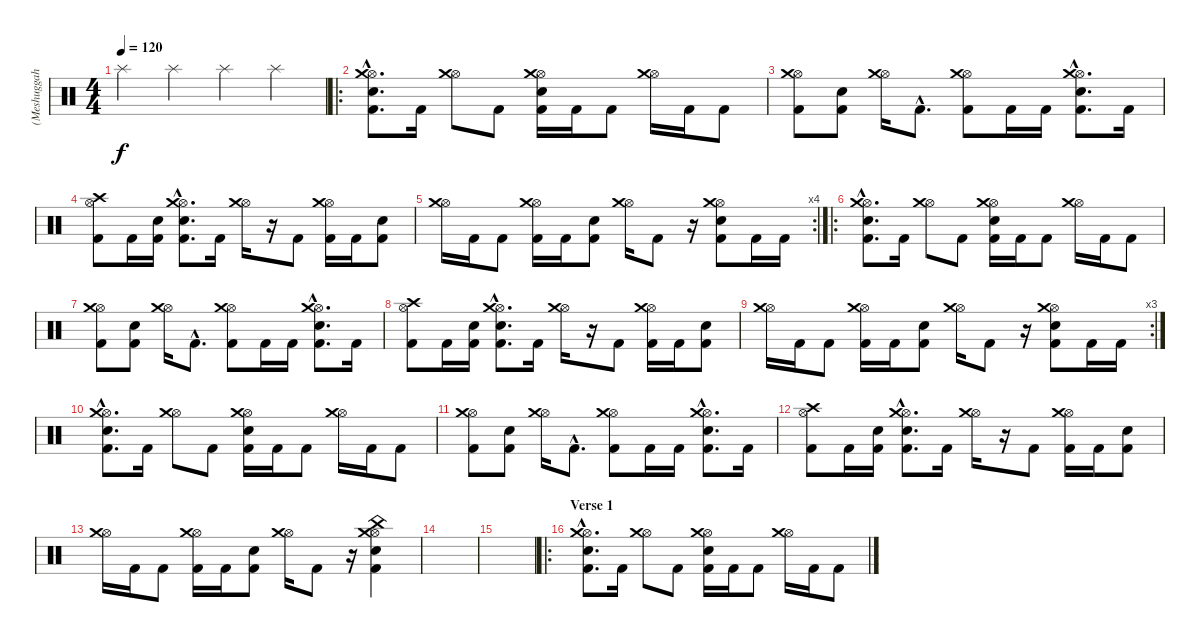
\track ("(Meshuggah) Drum programming" "(Meshuggah") {instrument percussion}
\staff {score}
\articulation defaults
\ts (4 4)
\tempo 120
\clef neutral
\ks c "Splash (hit)".4{dy f} "Splash (hit)".4 "Splash (hit)".4 "Splash (hit)".4
|
\ro
("Hi-Hat (open)"{hac} "Crash medium (hit)"{hac} "Electric Snare (hit)"{hac} "Kick (hit) 2"{hac}).8{d} "Kick (hit) 2".16 ("Hi-Hat (open)" "Crash medium (hit)").8 "Kick (hit) 2".8 ("Hi-Hat (open)" "Crash medium (hit)" "Electric Snare (hit)" "Kick (hit) 2").16 "Kick (hit) 2".16 "Kick (hit) 2".8 ("Hi-Hat (open)" "Crash medium (hit)").16 "Kick (hit) 2".16 "Kick (hit) 2".8 |
("Hi-Hat (open)" "Crash medium (hit)" "Kick (hit) 2").8 ("Electric Snare (hit)" "Kick (hit) 2").8 ("Hi-Hat (open)" "Crash medium (hit)").16 "Kick (hit) 2"{hac}.8{d} ("Hi-Hat (open)" "Crash medium (hit)" "Kick (hit) 2").8 "Kick (hit) 2".16 "Kick (hit) 2".16 ("Hi-Hat (open)"{hac} "Crash medium (hit)"{hac} "Electric Snare (hit)"{hac} "Kick (hit) 2"{hac}).8{d} "Kick (hit) 2".16 |
("Hi-Hat (open)" "Crash high (hit)" "Kick (hit) 2").8 "Kick (hit) 2".16 ("Electric Snare (hit)" "Kick (hit) 2").16 ("Hi-Hat (open)"{hac} "Crash medium (hit)"{hac} "Electric Snare (hit)"{hac} "Kick (hit) 2"{hac}).8{d} "Kick (hit) 2".16 ("Hi-Hat (open)" "Crash medium (hit)").16 r.16 "Kick (hit) 2".8 ("Hi-Hat (open)" "Crash medium (hit)" "Kick (hit) 2").16 "Kick (hit) 2".16 ("Electric Snare (hit)" "Kick (hit) 2").8 |
\rc 4
("Hi-Hat (open)" "Crash medium (hit)").16 "Kick (hit) 2".16 "Kick (hit) 2".8 ("Hi-Hat (open)" "Crash medium (hit)" "Kick (hit) 2").16 "Kick (hit) 2".16 ("Electric Snare (hit)" "Kick (hit) 2").8 ("Hi-Hat (open)" "Crash medium (hit)").16 "Kick (hit) 2".8 r.16 ("Hi-Hat (open)" "Crash medium (hit)" "Electric Snare (hit)" "Kick (hit) 2").8 "Kick (hit) 2".16 "Kick (hit) 2".16 |
\ro
("Hi-Hat (open)"{hac} "Crash medium (hit)"{hac} "Electric Snare (hit)"{hac} "Kick (hit) 2"{hac}).8{d} "Kick (hit) 2".16 ("Hi-Hat (open)" "Crash medium (hit)").8 "Kick (hit) 2".8 ("Hi-Hat (open)" "Crash medium (hit)" "Electric Snare (hit)" "Kick (hit) 2").16 "Kick (hit) 2".16 "Kick (hit) 2".8 ("Hi-Hat (open)" "Crash medium (hit)").16 "Kick (hit) 2".16 "Kick (hit) 2".8 |
("Hi-Hat (open)" "Crash medium (hit)" "Kick (hit) 2").8 ("Electric Snare (hit)" "Kick (hit) 2").8 ("Hi-Hat (open)" "Crash medium (hit)").16 "Kick (hit) 2"{hac}.8{d} ("Hi-Hat (open)" "Crash medium (hit)" "Kick (hit) 2").8 "Kick (hit) 2".16 "Kick (hit) 2".16 ("Hi-Hat (open)"{hac} "Crash medium (hit)"{hac} "Electric Snare (hit)"{hac} "Kick (hit) 2"{hac}).8{d} "Kick (hit) 2".16 |
("Hi-Hat (open)" "Crash high (hit)" "Kick (hit) 2").8 "Kick (hit) 2".16 ("Electric Snare (hit)" "Kick (hit) 2").16 ("Hi-Hat (open)"{hac} "Crash medium (hit)"{hac} "Electric Snare (hit)"{hac} "Kick (hit) 2"{hac}).8{d} "Kick (hit) 2".16 ("Hi-Hat (open)" "Crash medium (hit)").16 r.16 "Kick (hit) 2".8 ("Hi-Hat (open)" "Crash medium (hit)" "Kick (hit) 2").16 "Kick (hit) 2".16 ("Electric Snare (hit)" "Kick (hit) 2").8 |
\rc 3
("Hi-Hat (open)" "Crash medium (hit)").16 "Kick (hit) 2".16 "Kick (hit) 2".8 ("Hi-Hat (open)" "Crash medium (hit)" "Kick (hit) 2").16 "Kick (hit) 2".16 ("Electric Snare (hit)" "Kick (hit) 2").8 ("Hi-Hat (open)" "Crash medium (hit)").16 "Kick (hit) 2".8 r.16 ("Hi-Hat (open)" "Crash medium (hit)" "Electric Snare (hit)" "Kick (hit) 2").8 "Kick (hit) 2".16 "Kick (hit) 2".16 |
("Hi-Hat (open)"{hac} "Crash medium (hit)"{hac} "Electric Snare (hit)"{hac} "Kick (hit) 2"{hac}).8{d} "Kick (hit) 2".16 ("Hi-Hat (open)" "Crash medium (hit)").8 "Kick (hit) 2".8 ("Hi-Hat (open)" "Crash medium (hit)" "Electric Snare (hit)" "Kick (hit) 2").16 "Kick (hit) 2".16 "Kick (hit) 2".8 ("Hi-Hat (open)" "Crash medium (hit)").16 "Kick (hit) 2".16 "Kick (hit) 2".8 |
("Hi-Hat (open)" "Crash medium (hit)" "Kick (hit) 2").8 ("Electric Snare (hit)" "Kick (hit) 2").8 ("Hi-Hat (open)" "Crash medium (hit)").16 "Kick (hit) 2"{hac}.8{d} ("Hi-Hat (open)" "Crash medium (hit)" "Kick (hit) 2").8 "Kick (hit) 2".16 "Kick (hit) 2".16 ("Hi-Hat (open)"{hac} "Crash medium (hit)"{hac} "Electric Snare (hit)"{hac} "Kick (hit) 2"{hac}).8{d} "Kick (hit) 2".16 |
("Hi-Hat (open)" "Crash high (hit)" "Kick (hit) 2").8 "Kick (hit) 2".16 ("Electric Snare (hit)" "Kick (hit) 2").16 ("Hi-Hat (open)"{hac} "Crash medium (hit)"{hac} "Electric Snare (hit)"{hac} "Kick (hit) 2"{hac}).8{d} "Kick (hit) 2".16 ("Hi-Hat (open)" "Crash medium (hit)").16 r.16 "Kick (hit) 2".8 ("Hi-Hat (open)" "Crash medium (hit)" "Kick (hit) 2").16 "Kick (hit) 2".16 ("Electric Snare (hit)" "Kick (hit) 2").8 |
("Hi-Hat (open)" "Crash medium (hit)").16 "Kick (hit) 2".16 "Kick (hit) 2".8 ("Hi-Hat (open)" "Crash medium (hit)" "Kick (hit) 2").16 "Kick (hit) 2".16 ("Electric Snare (hit)" "Kick (hit) 2").8 ("Hi-Hat (open)" "Crash medium (hit)").16 "Kick (hit) 2".8 r.16 ("Hi-Hat (open)" "Crash medium (hit)" "China (hit)" "Electric Snare (hit)" "Kick (hit) 2").4 |
|
|
\ro
\section ("" "Verse 1")
("Hi-Hat (open)"{hac} "Crash medium (hit)"{hac} "Electric Snare (hit)"{hac} "Kick (hit) 2"{hac}).8{d} "Kick (hit) 2".16 ("Hi-Hat (open)" "Crash medium (hit)").8 "Kick (hit) 2".8 ("Hi-Hat (open)" "Crash medium (hit)" "Electric Snare (hit)" "Kick (hit) 2").16 "Kick (hit) 2".16 "Kick (hit) 2".8 ("Hi-Hat (open)" "Crash medium (hit)").16 "Kick (hit) 2".16 "Kick (hit) 2".8
